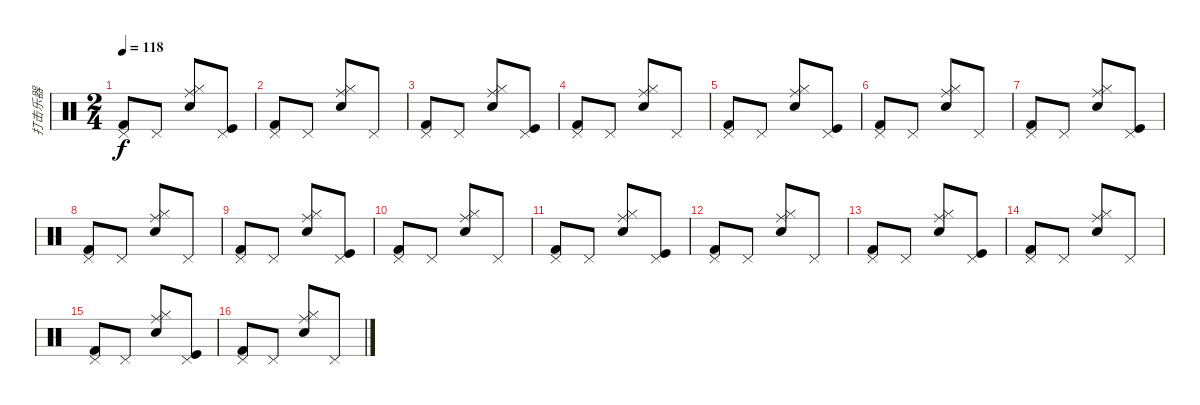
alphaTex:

\track ("打击乐器" "打击乐器") {instrument percussion}
\staff {score}
\articulation defaults
\ts (2 4)
\tempo 118
\clef neutral
\ks c
("Pedal Hi-Hat (hit)" "Kick (hit) 2").8{dy f} "Pedal Hi-Hat (hit)".8 ("Ride (middle)" "Hi-Hat (closed)" "Snare (hit) 2").8 ("Pedal Hi-Hat (hit)" "Kick (hit)").8 |
("Pedal Hi-Hat (hit)" "Kick (hit) 2").8 "Pedal Hi-Hat (hit)".8 ("Ride (middle)" "Hi-Hat (closed)" "Snare (hit) 2").8 "Pedal Hi-Hat (hit)".8 |
("Pedal Hi-Hat (hit)" "Kick (hit) 2").8 "Pedal Hi-Hat (hit)".8 ("Ride (middle)" "Hi-Hat (closed)" "Snare (hit) 2").8 ("Pedal Hi-Hat (hit)" "Kick (hit)").8 |
("Pedal Hi-Hat (hit)" "Kick (hit) 2").8 "Pedal Hi-Hat (hit)".8 ("Ride (middle)" "Hi-Hat (closed)" "Snare (hit) 2").8 "Pedal Hi-Hat (hit)".8 |
("Pedal Hi-Hat (hit)" "Kick (hit) 2").8 "Pedal Hi-Hat (hit)".8 ("Ride (middle)" "Hi-Hat (closed)" "Snare (hit) 2").8 ("Pedal Hi-Hat (hit)" "Kick (hit)").8 |
("Pedal Hi-Hat (hit)" "Kick (hit) 2").8 "Pedal Hi-Hat (hit)".8 ("Ride (middle)" "Hi-Hat (closed)" "Snare (hit) 2").8 "Pedal Hi-Hat (hit)".8 |
("Pedal Hi-Hat (hit)" "Kick (hit) 2").8 "Pedal Hi-Hat (hit)".8 ("Ride (middle)" "Hi-Hat (closed)" "Snare (hit) 2").8 ("Pedal Hi-Hat (hit)" "Kick (hit)").8 |
("Pedal Hi-Hat (hit)" "Kick (hit) 2").8 "Pedal Hi-Hat (hit)".8 ("Ride (middle)" "Hi-Hat (closed)" "Snare (hit) 2").8 "Pedal Hi-Hat (hit)".8 |
("Pedal Hi-Hat (hit)" "Kick (hit) 2").8 "Pedal Hi-Hat (hit)".8 ("Ride (middle)" "Hi-Hat (closed)" "Snare (hit) 2").8 ("Pedal Hi-Hat (hit)" "Kick (hit)").8 |
("Pedal Hi-Hat (hit)" "Kick (hit) 2").8 "Pedal Hi-Hat (hit)".8 ("Ride (middle)" "Hi-Hat (closed)" "Snare (hit) 2").8 "Pedal Hi-Hat (hit)".8 |
("Pedal Hi-Hat (hit)" "Kick (hit) 2").8 "Pedal Hi-Hat (hit)".8 ("Ride (middle)" "Hi-Hat (closed)" "Snare (hit) 2").8 ("Pedal Hi-Hat (hit)" "Kick (hit)").8 |
("Pedal Hi-Hat (hit)" "Kick (hit) 2").8 "Pedal Hi-Hat (hit)".8 ("Ride (middle)" "Hi-Hat (closed)" "Snare (hit) 2").8 "Pedal Hi-Hat (hit)".8 |
("Pedal Hi-Hat (hit)" "Kick (hit) 2").8 "Pedal Hi-Hat (hit)".8 ("Ride (middle)" "Hi-Hat (closed)" "Snare (hit) 2").8 ("Pedal Hi-Hat (hit)" "Kick (hit)").8 |
("Pedal Hi-Hat (hit)" "Kick (hit) 2").8 "Pedal Hi-Hat (hit)".8 ("Ride (middle)" "Hi-Hat (closed)" "Snare (hit) 2").8 "Pedal Hi-Hat (hit)".8 |
("Pedal Hi-Hat (hit)" "Kick (hit) 2").8 "Pedal Hi-Hat (hit)".8 ("Ride (middle)" "Hi-Hat (closed)" "Snare (hit) 2").8 ("Pedal Hi-Hat (hit)" "Kick (hit)").8 |
("Pedal Hi-Hat (hit)" "Kick (hit) 2").8 "Pedal Hi-Hat (hit)".8 ("Ride (middle)" "Hi-Hat (closed)" "Snare (hit) 2").8 "Pedal Hi-Hat (hit)".8
